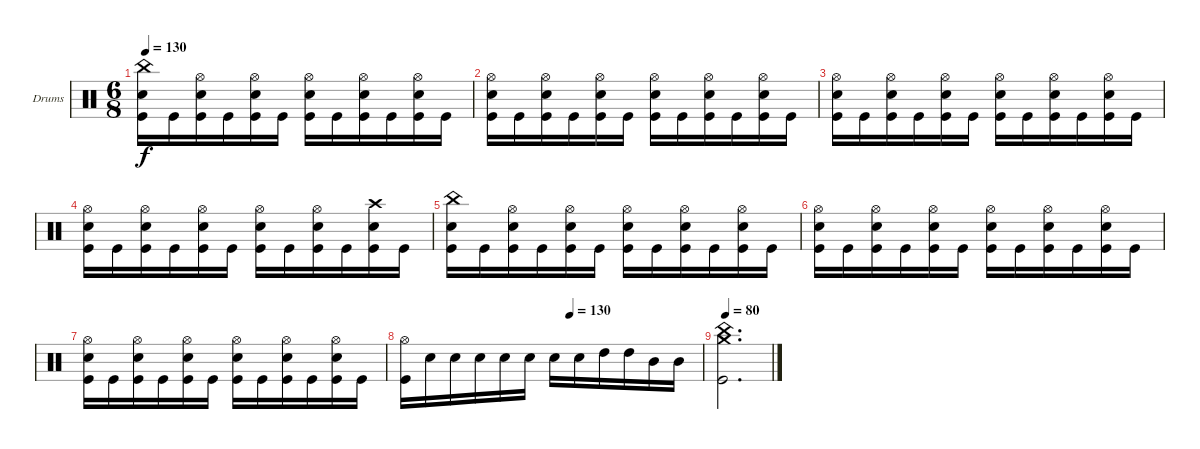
\bracketExtendMode groupsimilarinstruments
\firstSystemTrackNameOrientation horizontal
\otherSystemsTrackNameOrientation horizontal
\track ("drums (Anton Zulganov)" "Drums") {instrument percussion}
\staff {score}
\articulation defaults
\ts (6 8)
\tempo 130
\clef neutral
\ks aminor
("China (hit)" "Snare (hit) 2" "Kick (hit)").16{dy f} "Kick (hit)".16 ("Hi-Hat (open)" "Snare (hit) 2" "Kick (hit)").16 "Kick (hit)".16 ("Hi-Hat (open)" "Snare (hit) 2" "Kick (hit)").16 "Kick (hit)".16 ("Snare (hit) 2" "Kick (hit)" "Hi-Hat (open)").16 "Kick (hit)".16 ("Hi-Hat (open)" "Snare (hit) 2" "Kick (hit)").16 "Kick (hit)".16 ("Hi-Hat (open)" "Snare (hit) 2" "Kick (hit)").16 "Kick (hit)".16 |
("Snare (hit) 2" "Kick (hit)" "Hi-Hat (open)").16 "Kick (hit)".16 ("Hi-Hat (open)" "Snare (hit) 2" "Kick (hit)").16 "Kick (hit)".16 ("Hi-Hat (open)" "Snare (hit) 2" "Kick (hit)").16 "Kick (hit)".16 ("Snare (hit) 2" "Kick (hit)" "Hi-Hat (open)").16 "Kick (hit)".16 ("Hi-Hat (open)" "Snare (hit) 2" "Kick (hit)").16 "Kick (hit)".16 ("Hi-Hat (open)" "Snare (hit) 2" "Kick (hit)").16 "Kick (hit)".16 |
("Snare (hit) 2" "Kick (hit)" "Hi-Hat (open)").16 "Kick (hit)".16 ("Hi-Hat (open)" "Snare (hit) 2" "Kick (hit)").16 "Kick (hit)".16 ("Hi-Hat (open)" "Snare (hit) 2" "Kick (hit)").16 "Kick (hit)".16 ("Snare (hit) 2" "Kick (hit)" "Hi-Hat (open)").16 "Kick (hit)".16 ("Hi-Hat (open)" "Snare (hit) 2" "Kick (hit)").16 "Kick (hit)".16 ("Snare (hit) 2" "Kick (hit)" "Hi-Hat (open)").16 "Kick (hit)".16 |
("Snare (hit) 2" "Kick (hit)" "Hi-Hat (open)").16 "Kick (hit)".16 ("Hi-Hat (open)" "Snare (hit) 2" "Kick (hit)").16 "Kick (hit)".16 ("Hi-Hat (open)" "Snare (hit) 2" "Kick (hit)").16 "Kick (hit)".16 ("Snare (hit) 2" "Kick (hit)" "Hi-Hat (open)").16 "Kick (hit)".16 ("Hi-Hat (open)" "Snare (hit) 2" "Kick (hit)").16 "Kick (hit)".16 ("Snare (hit) 2" "Kick (hit)" "Crash high (hit)").16 "Kick (hit)".16 |
("Snare (hit) 2" "Kick (hit)" "China (hit)").16 "Kick (hit)".16 ("Hi-Hat (open)" "Snare (hit) 2" "Kick (hit)").16 "Kick (hit)".16 ("Hi-Hat (open)" "Snare (hit) 2" "Kick (hit)").16 "Kick (hit)".16 ("Snare (hit) 2" "Kick (hit)" "Hi-Hat (open)").16 "Kick (hit)".16 ("Hi-Hat (open)" "Snare (hit) 2" "Kick (hit)").16 "Kick (hit)".16 ("Hi-Hat (open)" "Snare (hit) 2" "Kick (hit)").16 "Kick (hit)".16 |
("Snare (hit) 2" "Kick (hit)" "Hi-Hat (open)").16 "Kick (hit)".16 ("Hi-Hat (open)" "Snare (hit) 2" "Kick (hit)").16 "Kick (hit)".16 ("Hi-Hat (open)" "Snare (hit) 2" "Kick (hit)").16 "Kick (hit)".16 ("Snare (hit) 2" "Kick (hit)" "Hi-Hat (open)").16 "Kick (hit)".16 ("Hi-Hat (open)" "Snare (hit) 2" "Kick (hit)").16 "Kick (hit)".16 ("Hi-Hat (open)" "Snare (hit) 2" "Kick (hit)").16 "Kick (hit)".16 |
("Snare (hit) 2" "Kick (hit)" "Hi-Hat (open)").16 "Kick (hit)".16 ("Hi-Hat (open)" "Snare (hit) 2" "Kick (hit)").16 "Kick (hit)".16 ("Hi-Hat (open)" "Snare (hit) 2" "Kick (hit)").16 "Kick (hit)".16 ("Snare (hit) 2" "Kick (hit)" "Hi-Hat (open)").16 "Kick (hit)".16 ("Hi-Hat (open)" "Snare (hit) 2" "Kick (hit)").16 "Kick (hit)".16 ("Hi-Hat (open)" "Snare (hit) 2" "Kick (hit)").16 "Kick (hit)".16 |
\tempo (130 0.55625)
("Kick (hit)" "Hi-Hat (open)").16 "Snare (hit) 2".16 "Snare (hit) 2".16 "Snare (hit) 2".16 "Snare (hit) 2".16 "Snare (hit) 2".16 "Snare (hit) 2".16 "Snare (hit) 2".16 "High Tom (hit)".16 "High Tom (hit)".16 "Mid Tom (hit)".16 "Mid Tom (hit)".16 |
\tempo 80
("Crash medium (hit)" "China (hit)" "Kick (hit)").2{d}
